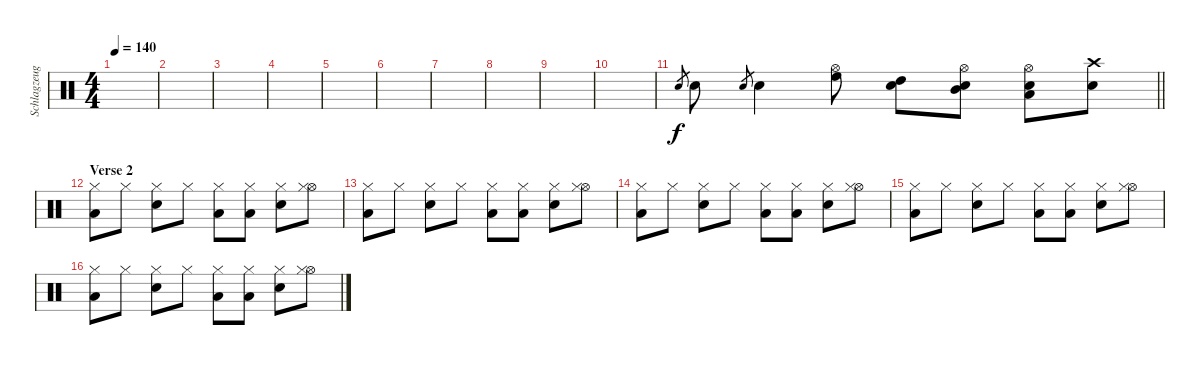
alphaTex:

\track ("Schlagzeug 2nd" "Schlagzeug") {instrument percussion}
\staff {score}
\articulation defaults
\ts (4 4)
\tempo 140
\clef neutral
\ks c
|
|
|
|
|
|
|
|
|
|
\barLineRight lightlight "Snare (hit) 2".8{gr} "Snare (hit) 2".8 "Snare (hit) 2".8{gr} "Snare (hit) 2".4
("Hi-Hat (open)" "High Floor Tom (hit)").8 ("High Tom (hit)" "Electric Snare (hit)").8 ("Hi-Hat (open)" "Mid Tom (hit)" "Electric Snare (hit)").8 ("Hi-Hat (open)" "Low Tom (hit)" "Electric Snare (hit)").8 ("Crash high (hit)" "Electric Snare (hit)").8 |
\section ("" "Verse 2")
("Hi-Hat (closed)" "Low Tom (hit)").8{volume 14} "Hi-Hat (closed)".8 ("Hi-Hat (closed)" "Electric Snare (hit)").8 "Hi-Hat (closed)".8 ("Hi-Hat (closed)" "Low Tom (hit)").8 ("Hi-Hat (closed)" "Low Tom (hit)").8 ("Hi-Hat (closed)" "Electric Snare (hit)").8 ("Hi-Hat (open)" "Hi-Hat (closed)").8 |
("Hi-Hat (closed)" "Low Tom (hit)").8 "Hi-Hat (closed)".8 ("Hi-Hat (closed)" "Electric Snare (hit)").8 "Hi-Hat (closed)".8 ("Hi-Hat (closed)" "Low Tom (hit)").8 ("Hi-Hat (closed)" "Low Tom (hit)").8 ("Hi-Hat (closed)" "Electric Snare (hit)").8 ("Hi-Hat (open)" "Hi-Hat (closed)").8 |
("Hi-Hat (closed)" "Low Tom (hit)").8 "Hi-Hat (closed)".8 ("Hi-Hat (closed)" "Electric Snare (hit)").8 "Hi-Hat (closed)".8 ("Hi-Hat (closed)" "Low Tom (hit)").8 ("Hi-Hat (closed)" "Low Tom (hit)").8 ("Hi-Hat (closed)" "Electric Snare (hit)").8 ("Hi-Hat (open)" "Hi-Hat (closed)").8 |
("Hi-Hat (closed)" "Low Tom (hit)").8 "Hi-Hat (closed)".8 ("Hi-Hat (closed)" "Electric Snare (hit)").8 "Hi-Hat (closed)".8 ("Hi-Hat (closed)" "Low Tom (hit)").8 ("Hi-Hat (closed)" "Low Tom (hit)").8 ("Hi-Hat (closed)" "Electric Snare (hit)").8 ("Hi-Hat (open)" "Hi-Hat (closed)").8 |
("Hi-Hat (closed)" "Low Tom (hit)").8 "Hi-Hat (closed)".8 ("Hi-Hat (closed)" "Electric Snare (hit)").8 "Hi-Hat (closed)".8 ("Hi-Hat (closed)" "Low Tom (hit)").8 ("Hi-Hat (closed)" "Low Tom (hit)").8 ("Hi-Hat (closed)" "Electric Snare (hit)").8 ("Hi-Hat (open)" "Hi-Hat (closed)").8
